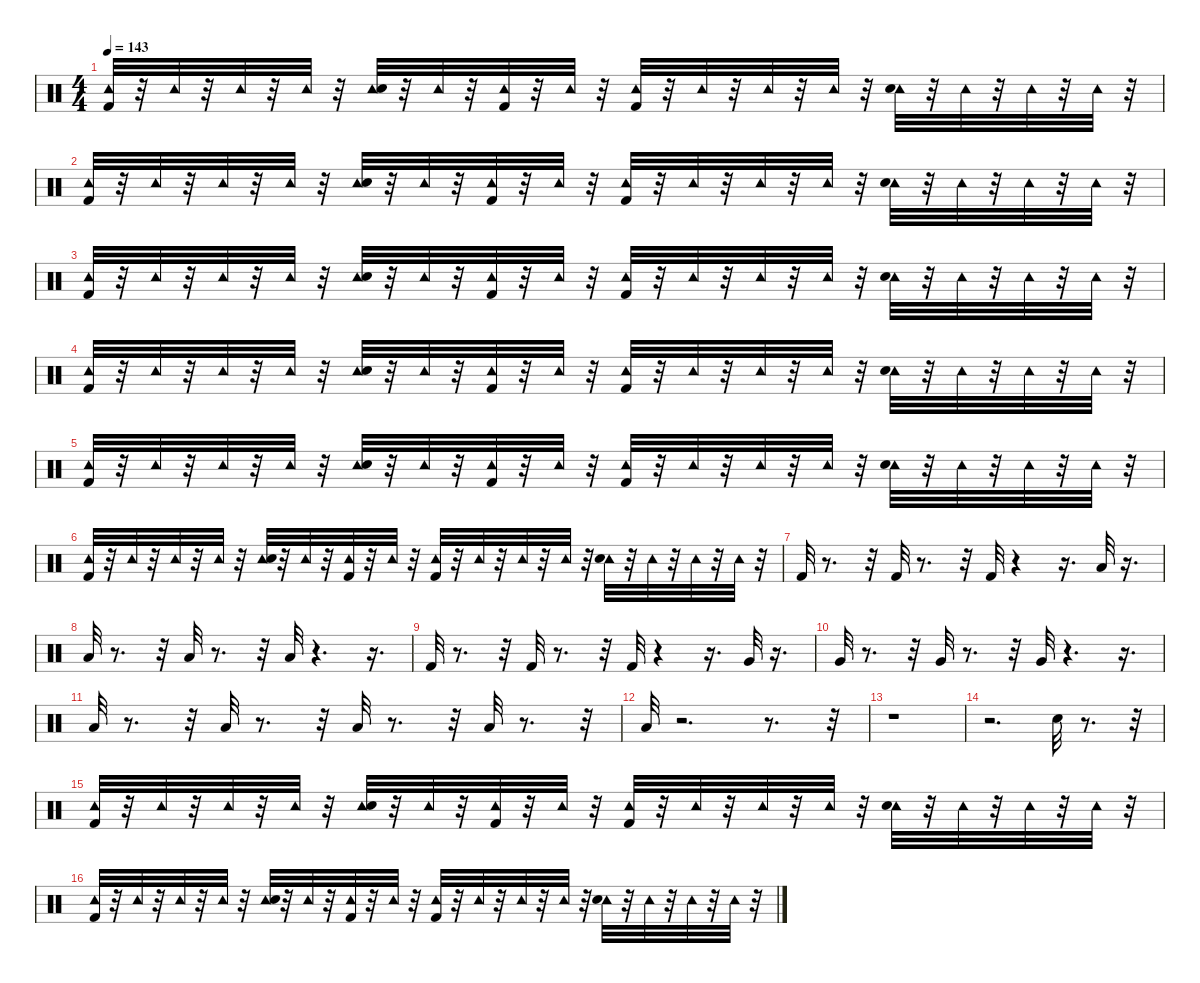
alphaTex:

\defaultSystemsLayout 4
\hideDynamics
\bracketExtendMode nobrackets
\singleTrackTrackNamePolicy hidden
\multiTrackTrackNamePolicy hidden
\firstSystemTrackNameMode fullname
\firstSystemTrackNameOrientation horizontal
\otherSystemsTrackNameOrientation horizontal
\track ("Drums" "drm.") {instrument percussion}
\staff {score}
\articulation defaults
\ts (4 4)
\tempo 143
\clef neutral
\ks c
("Kick (hit) 2" "Tambourine (hit)").32{dy ff beam Up} r.32{beam Up} "Tambourine (hit)".32{dy mf beam Up} r.32{beam Up} "Tambourine (hit)".32{beam Up} r.32{beam Up} "Tambourine (hit)".32{beam Up} r.32{beam Up} ("Tambourine (hit)" "Snare (hit) 2").32{dy fff beam Up} r.32{beam Up} "Tambourine (hit)".32{dy mf beam Up} r.32{beam Up} ("Kick (hit) 2" "Tambourine (hit)").32{dy fff beam Up} r.32{beam Up} "Tambourine (hit)".32{dy mf beam Up} r.32{beam Up} ("Kick (hit) 2" "Tambourine (hit)").32{dy ff beam Up} r.32{beam Up} "Tambourine (hit)".32{dy mf beam Up} r.32{beam Up} "Tambourine (hit)".32{dy mp beam Up} r.32{beam Up} "Tambourine (hit)".32{dy mf beam Up} r.32{beam Up} ("Tambourine (hit)" "Snare (hit) 2").32{dy fff beam Down} r.32{beam Down} "Tambourine (hit)".32{dy mf beam Down} r.32{beam Down} "Tambourine (hit)".32{beam Down} r.32{beam Down} "Tambourine (hit)".32{beam Down} r.32{beam Down} |
("Kick (hit) 2" "Tambourine (hit)").32{dy ff beam Up} r.32{beam Up} "Tambourine (hit)".32{dy mf beam Up} r.32{beam Up} "Tambourine (hit)".32{beam Up} r.32{beam Up} "Tambourine (hit)".32{beam Up} r.32{beam Up} ("Tambourine (hit)" "Snare (hit) 2").32{dy fff beam Up} r.32{beam Up} "Tambourine (hit)".32{dy mf beam Up} r.32{beam Up} ("Kick (hit) 2" "Tambourine (hit)").32{dy fff beam Up} r.32{beam Up} "Tambourine (hit)".32{dy mf beam Up} r.32{beam Up} ("Kick (hit) 2" "Tambourine (hit)").32{dy ff beam Up} r.32{beam Up} "Tambourine (hit)".32{dy mf beam Up} r.32{beam Up} "Tambourine (hit)".32{dy mp beam Up} r.32{beam Up} "Tambourine (hit)".32{dy mf beam Up} r.32{beam Up} ("Tambourine (hit)" "Snare (hit) 2").32{dy fff beam Down} r.32{beam Down} "Tambourine (hit)".32{dy mf beam Down} r.32{beam Down} "Tambourine (hit)".32{beam Down} r.32{beam Down} "Tambourine (hit)".32{beam Down} r.32{beam Down} |
("Kick (hit) 2" "Tambourine (hit)").32{dy ff beam Up} r.32{beam Up} "Tambourine (hit)".32{dy mf beam Up} r.32{beam Up} "Tambourine (hit)".32{beam Up} r.32{beam Up} "Tambourine (hit)".32{beam Up} r.32{beam Up} ("Tambourine (hit)" "Snare (hit) 2").32{dy fff beam Up} r.32{beam Up} "Tambourine (hit)".32{dy mf beam Up} r.32{beam Up} ("Kick (hit) 2" "Tambourine (hit)").32{dy fff beam Up} r.32{beam Up} "Tambourine (hit)".32{dy mf beam Up} r.32{beam Up} ("Kick (hit) 2" "Tambourine (hit)").32{dy ff beam Up} r.32{beam Up} "Tambourine (hit)".32{dy mf beam Up} r.32{beam Up} "Tambourine (hit)".32{dy mp beam Up} r.32{beam Up} "Tambourine (hit)".32{dy mf beam Up} r.32{beam Up} ("Tambourine (hit)" "Snare (hit) 2").32{dy fff beam Down} r.32{beam Down} "Tambourine (hit)".32{dy mf beam Down} r.32{beam Down} "Tambourine (hit)".32{beam Down} r.32{beam Down} "Tambourine (hit)".32{beam Down} r.32{beam Down} |
("Kick (hit) 2" "Tambourine (hit)").32{dy ff beam Up} r.32{beam Up} "Tambourine (hit)".32{dy mf beam Up} r.32{beam Up} "Tambourine (hit)".32{beam Up} r.32{beam Up} "Tambourine (hit)".32{beam Up} r.32{beam Up} ("Tambourine (hit)" "Snare (hit) 2").32{dy fff beam Up} r.32{beam Up} "Tambourine (hit)".32{dy mf beam Up} r.32{beam Up} ("Kick (hit) 2" "Tambourine (hit)").32{dy fff beam Up} r.32{beam Up} "Tambourine (hit)".32{dy mf beam Up} r.32{beam Up} ("Kick (hit) 2" "Tambourine (hit)").32{dy ff beam Up} r.32{beam Up} "Tambourine (hit)".32{dy mf beam Up} r.32{beam Up} "Tambourine (hit)".32{dy mp beam Up} r.32{beam Up} "Tambourine (hit)".32{dy mf beam Up} r.32{beam Up} ("Tambourine (hit)" "Snare (hit) 2").32{dy fff beam Down} r.32{beam Down} "Tambourine (hit)".32{dy mf beam Down} r.32{beam Down} "Tambourine (hit)".32{beam Down} r.32{beam Down} "Tambourine (hit)".32{beam Down} r.32{beam Down} |
("Kick (hit) 2" "Tambourine (hit)").32{dy ff beam Up} r.32{beam Up} "Tambourine (hit)".32{dy mf beam Up} r.32{beam Up} "Tambourine (hit)".32{beam Up} r.32{beam Up} "Tambourine (hit)".32{beam Up} r.32{beam Up} ("Tambourine (hit)" "Snare (hit) 2").32{dy fff beam Up} r.32{beam Up} "Tambourine (hit)".32{dy mf beam Up} r.32{beam Up} ("Kick (hit) 2" "Tambourine (hit)").32{dy fff beam Up} r.32{beam Up} "Tambourine (hit)".32{dy mf beam Up} r.32{beam Up} ("Kick (hit) 2" "Tambourine (hit)").32{dy ff beam Up} r.32{beam Up} "Tambourine (hit)".32{dy mf beam Up} r.32{beam Up} "Tambourine (hit)".32{dy mp beam Up} r.32{beam Up} "Tambourine (hit)".32{dy mf beam Up} r.32{beam Up} ("Tambourine (hit)" "Snare (hit) 2").32{dy fff beam Down} r.32{beam Down} "Tambourine (hit)".32{dy mf beam Down} r.32{beam Down} "Tambourine (hit)".32{beam Down} r.32{beam Down} "Tambourine (hit)".32{beam Down} r.32{beam Down} |
("Kick (hit) 2" "Tambourine (hit)").32{dy ff beam Up} r.32{beam Up} "Tambourine (hit)".32{dy mf beam Up} r.32{beam Up} "Tambourine (hit)".32{beam Up} r.32{beam Up} "Tambourine (hit)".32{beam Up} r.32{beam Up} ("Tambourine (hit)" "Snare (hit) 2").32{dy fff beam Up} r.32{beam Up} "Tambourine (hit)".32{dy mf beam Up} r.32{beam Up} ("Kick (hit) 2" "Tambourine (hit)").32{dy fff beam Up} r.32{beam Up} "Tambourine (hit)".32{dy mf beam Up} r.32{beam Up} ("Kick (hit) 2" "Tambourine (hit)").32{dy ff beam Up} r.32{beam Up} "Tambourine (hit)".32{dy mf beam Up} r.32{beam Up} "Tambourine (hit)".32{dy mp beam Up} r.32{beam Up} "Tambourine (hit)".32{dy mf beam Up} r.32{beam Up} ("Tambourine (hit)" "Snare (hit) 2").32{dy fff beam Down} r.32{beam Down} "Tambourine (hit)".32{dy mf beam Down} r.32{beam Down} "Tambourine (hit)".32{beam Down} r.32{beam Down} "Tambourine (hit)".32{beam Down} r.32{beam Down} |
"Kick (hit) 2".32{dy fff beam Up} r.8{d beam Up} r.32{beam Up} "Kick (hit) 2".32{beam Up} r.8{d beam Up} r.32{beam Up} "Kick (hit) 2".32{beam Up} r.4{beam Up} r.16{d beam Up} "Low Tom (hit)".32{dy ff beam Up} r.16{d beam Up} |
"Low Tom (hit)".32{dy fff beam Up} r.8{d beam Up} r.32{beam Up} "Low Tom (hit)".32{dy ff beam Up} r.8{d beam Up} r.32{beam Up} "Low Tom (hit)".32{dy fff beam Up} r.4{d beam Up} r.16{d beam Up} |
"Kick (hit) 2".32{beam Up} r.8{d beam Up} r.32{beam Up} "Kick (hit) 2".32{beam Up} r.8{d beam Up} r.32{beam Up} "Kick (hit) 2".32{beam Up} r.4{beam Up} r.16{d beam Up} "Very Low Tom (hit)".32{beam Up} r.16{d beam Up} |
"Very Low Tom (hit)".32{dy ff beam Up} r.8{d beam Up} r.32{beam Up} "Very Low Tom (hit)".32{beam Up} r.8{d beam Up} r.32{beam Up} "Very Low Tom (hit)".32{dy fff beam Up} r.4{d beam Up} r.16{d beam Up} |
"Low Floor Tom (hit)".32{dy ff beam Up} r.8{d beam Up} r.32{beam Up} "Low Floor Tom (hit)".32{beam Up} r.8{d beam Up} r.32{beam Up} "Low Floor Tom (hit)".32{beam Up} r.8{d beam Up} r.32{beam Up} "Low Floor Tom (hit)".32{beam Up} r.8{d beam Up} r.32{beam Up} |
"Low Floor Tom (hit)".32{dy fff beam Up} r.2{d beam Up} r.8{d beam Up} r.32{beam Up} |
r.1{beam Down} |
r.2{d beam Down} "Snare (hit) 2".32{beam Down} r.8{d beam Down} r.32{beam Down} |
("Kick (hit) 2" "Tambourine (hit)").32{dy ff beam Up} r.32{beam Up} "Tambourine (hit)".32{dy mf beam Up} r.32{beam Up} "Tambourine (hit)".32{beam Up} r.32{beam Up} "Tambourine (hit)".32{beam Up} r.32{beam Up} ("Tambourine (hit)" "Snare (hit) 2").32{dy fff beam Up} r.32{beam Up} "Tambourine (hit)".32{dy mf beam Up} r.32{beam Up} ("Kick (hit) 2" "Tambourine (hit)").32{dy fff beam Up} r.32{beam Up} "Tambourine (hit)".32{dy mf beam Up} r.32{beam Up} ("Kick (hit) 2" "Tambourine (hit)").32{dy ff beam Up} r.32{beam Up} "Tambourine (hit)".32{dy mf beam Up} r.32{beam Up} "Tambourine (hit)".32{dy mp beam Up} r.32{beam Up} "Tambourine (hit)".32{dy mf beam Up} r.32{beam Up} ("Tambourine (hit)" "Snare (hit) 2").32{dy fff beam Down} r.32{beam Down} "Tambourine (hit)".32{dy mf beam Down} r.32{beam Down} "Tambourine (hit)".32{beam Down} r.32{beam Down} "Tambourine (hit)".32{beam Down} r.32{beam Down} |
("Kick (hit) 2" "Tambourine (hit)").32{dy ff beam Up} r.32{beam Up} "Tambourine (hit)".32{dy mf beam Up} r.32{beam Up} "Tambourine (hit)".32{beam Up} r.32{beam Up} "Tambourine (hit)".32{beam Up} r.32{beam Up} ("Tambourine (hit)" "Snare (hit) 2").32{dy fff beam Up} r.32{beam Up} "Tambourine (hit)".32{dy mf beam Up} r.32{beam Up} ("Kick (hit) 2" "Tambourine (hit)").32{dy fff beam Up} r.32{beam Up} "Tambourine (hit)".32{dy mf beam Up} r.32{beam Up} ("Kick (hit) 2" "Tambourine (hit)").32{dy ff beam Up} r.32{beam Up} "Tambourine (hit)".32{dy mf beam Up} r.32{beam Up} "Tambourine (hit)".32{dy mp beam Up} r.32{beam Up} "Tambourine (hit)".32{dy mf beam Up} r.32{beam Up} ("Tambourine (hit)" "Snare (hit) 2").32{dy fff beam Down} r.32{beam Down} "Tambourine (hit)".32{dy mf beam Down} r.32{beam Down} "Tambourine (hit)".32{beam Down} r.32{beam Down} "Tambourine (hit)".32{beam Down} r.32{beam Down}
